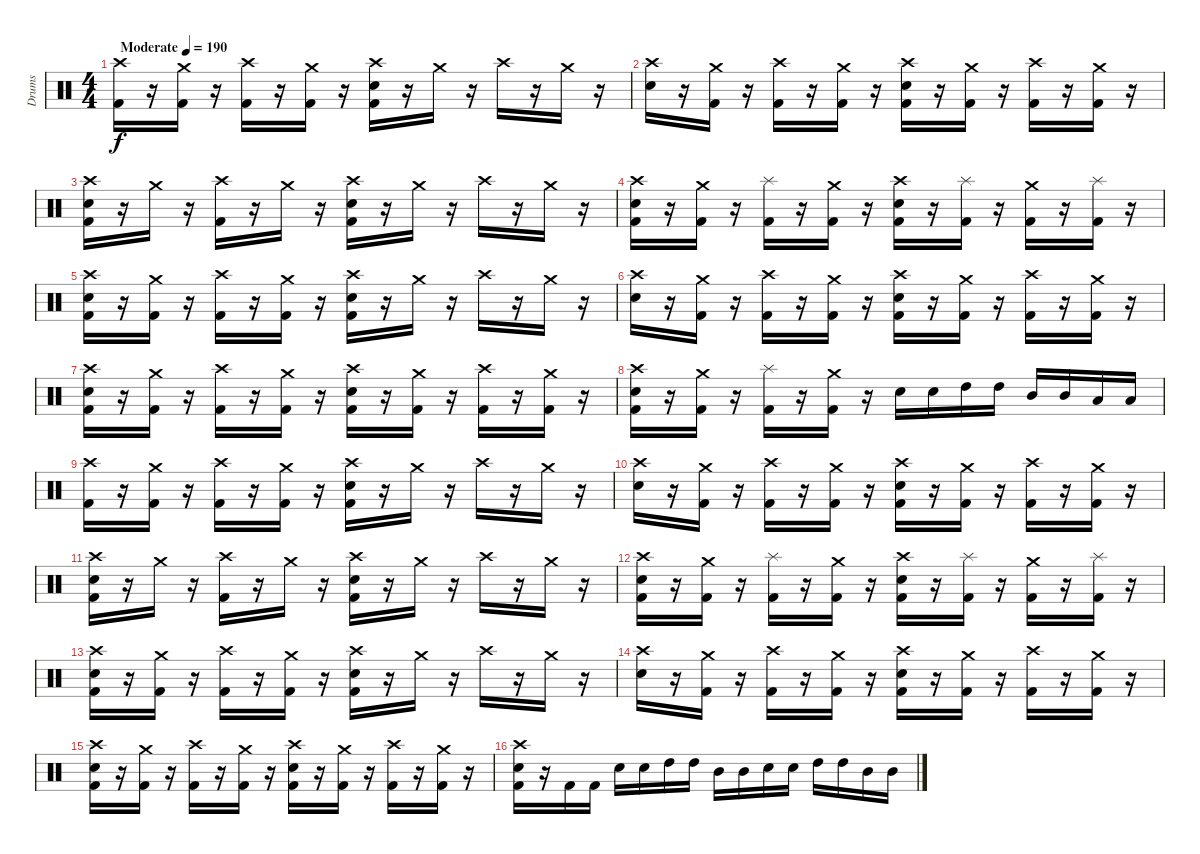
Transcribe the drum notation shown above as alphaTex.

\track ("Drums" "Drums") {instrument percussion}
\staff {score}
\articulation defaults
\ts (4 4)
\tempo (190 "Moderate")
\clef neutral
\ks c
("Crash high (hit)" "Kick (hit) 2").16{dy f} r.16 ("Crash medium (hit)" "Kick (hit) 2").16 r.16 ("Crash high (hit)" "Kick (hit) 2").16 r.16 ("Crash medium (hit)" "Kick (hit) 2").16 r.16 ("Crash high (hit)" "Electric Snare (hit)" "Kick (hit) 2").16 r.16 "Crash medium (hit)".16 r.16 "Crash high (hit)".16 r.16 "Crash medium (hit)".16 r.16 |
("Crash high (hit)" "Electric Snare (hit)").16 r.16 ("Crash medium (hit)" "Kick (hit) 2").16 r.16 ("Crash high (hit)" "Kick (hit) 2").16 r.16 ("Crash medium (hit)" "Kick (hit) 2").16 r.16 ("Crash high (hit)" "Electric Snare (hit)" "Kick (hit) 2").16 r.16 ("Crash medium (hit)" "Kick (hit) 2").16 r.16 ("Crash high (hit)" "Kick (hit) 2").16 r.16 ("Crash medium (hit)" "Kick (hit) 2").16 r.16 |
("Crash high (hit)" "Electric Snare (hit)" "Kick (hit) 2").16 r.16 "Crash medium (hit)".16 r.16 ("Crash high (hit)" "Kick (hit) 2").16 r.16 "Crash medium (hit)".16 r.16 ("Crash high (hit)" "Electric Snare (hit)" "Kick (hit) 2").16 r.16 "Crash medium (hit)".16 r.16 "Crash high (hit)".16 r.16 "Crash medium (hit)".16 r.16 |
("Crash high (hit)" "Electric Snare (hit)" "Kick (hit) 2").16 r.16 ("Crash medium (hit)" "Kick (hit) 2").16 r.16 ("Splash (hit)" "Kick (hit) 2").16 r.16 ("Crash medium (hit)" "Kick (hit) 2").16 r.16 ("Crash high (hit)" "Electric Snare (hit)" "Kick (hit) 2").16 r.16 ("Splash (hit)" "Kick (hit) 2").16 r.16 ("Crash medium (hit)" "Kick (hit) 2").16 r.16 ("Splash (hit)" "Kick (hit) 2").16 r.16 |
("Crash high (hit)" "Electric Snare (hit)" "Kick (hit) 2").16 r.16 ("Crash medium (hit)" "Kick (hit) 2").16 r.16 ("Crash high (hit)" "Kick (hit) 2").16 r.16 ("Crash medium (hit)" "Kick (hit) 2").16 r.16 ("Crash high (hit)" "Electric Snare (hit)" "Kick (hit) 2").16 r.16 "Crash medium (hit)".16 r.16 "Crash high (hit)".16 r.16 "Crash medium (hit)".16 r.16 |
("Crash high (hit)" "Electric Snare (hit)").16 r.16 ("Crash medium (hit)" "Kick (hit) 2").16 r.16 ("Crash high (hit)" "Kick (hit) 2").16 r.16 ("Crash medium (hit)" "Kick (hit) 2").16 r.16 ("Crash high (hit)" "Electric Snare (hit)" "Kick (hit) 2").16 r.16 ("Crash medium (hit)" "Kick (hit) 2").16 r.16 ("Crash high (hit)" "Kick (hit) 2").16 r.16 ("Crash medium (hit)" "Kick (hit) 2").16 r.16 |
("Crash high (hit)" "Electric Snare (hit)" "Kick (hit) 2").16 r.16 ("Crash medium (hit)" "Kick (hit) 2").16 r.16 ("Crash high (hit)" "Kick (hit) 2").16 r.16 ("Crash medium (hit)" "Kick (hit) 2").16 r.16 ("Crash high (hit)" "Electric Snare (hit)" "Kick (hit) 2").16 r.16 ("Crash medium (hit)" "Kick (hit) 2").16 r.16 ("Crash high (hit)" "Kick (hit) 2").16 r.16 ("Crash medium (hit)" "Kick (hit) 2").16 r.16 |
("Crash high (hit)" "Electric Snare (hit)" "Kick (hit) 2").16 r.16 ("Crash medium (hit)" "Kick (hit) 2").16 r.16 ("Splash (hit)" "Kick (hit) 2").16 r.16 ("Crash medium (hit)" "Kick (hit) 2").16 r.16 "Electric Snare (hit)".16 "Electric Snare (hit)".16 "High Tom (hit)".16 "High Tom (hit)".16 "Mid Tom (hit)".16 "Mid Tom (hit)".16 "Low Tom (hit)".16 "Low Tom (hit)".16 |
("Crash high (hit)" "Kick (hit) 2").16 r.16 ("Crash medium (hit)" "Kick (hit) 2").16 r.16 ("Crash high (hit)" "Kick (hit) 2").16 r.16 ("Crash medium (hit)" "Kick (hit) 2").16 r.16 ("Crash high (hit)" "Electric Snare (hit)" "Kick (hit) 2").16 r.16 "Crash medium (hit)".16 r.16 "Crash high (hit)".16 r.16 "Crash medium (hit)".16 r.16 |
("Crash high (hit)" "Electric Snare (hit)").16 r.16 ("Crash medium (hit)" "Kick (hit) 2").16 r.16 ("Crash high (hit)" "Kick (hit) 2").16 r.16 ("Crash medium (hit)" "Kick (hit) 2").16 r.16 ("Crash high (hit)" "Electric Snare (hit)" "Kick (hit) 2").16 r.16 ("Crash medium (hit)" "Kick (hit) 2").16 r.16 ("Crash high (hit)" "Kick (hit) 2").16 r.16 ("Crash medium (hit)" "Kick (hit) 2").16 r.16 |
("Crash high (hit)" "Electric Snare (hit)" "Kick (hit) 2").16 r.16 "Crash medium (hit)".16 r.16 ("Crash high (hit)" "Kick (hit) 2").16 r.16 "Crash medium (hit)".16 r.16 ("Crash high (hit)" "Electric Snare (hit)" "Kick (hit) 2").16 r.16 "Crash medium (hit)".16 r.16 "Crash high (hit)".16 r.16 "Crash medium (hit)".16 r.16 |
("Crash high (hit)" "Electric Snare (hit)" "Kick (hit) 2").16 r.16 ("Crash medium (hit)" "Kick (hit) 2").16 r.16 ("Splash (hit)" "Kick (hit) 2").16 r.16 ("Crash medium (hit)" "Kick (hit) 2").16 r.16 ("Crash high (hit)" "Electric Snare (hit)" "Kick (hit) 2").16 r.16 ("Splash (hit)" "Kick (hit) 2").16 r.16 ("Crash medium (hit)" "Kick (hit) 2").16 r.16 ("Splash (hit)" "Kick (hit) 2").16 r.16 |
("Crash high (hit)" "Electric Snare (hit)" "Kick (hit) 2").16 r.16 ("Crash medium (hit)" "Kick (hit) 2").16 r.16 ("Crash high (hit)" "Kick (hit) 2").16 r.16 ("Crash medium (hit)" "Kick (hit) 2").16 r.16 ("Crash high (hit)" "Electric Snare (hit)" "Kick (hit) 2").16 r.16 "Crash medium (hit)".16 r.16 "Crash high (hit)".16 r.16 "Crash medium (hit)".16 r.16 |
("Crash high (hit)" "Electric Snare (hit)").16 r.16 ("Crash medium (hit)" "Kick (hit) 2").16 r.16 ("Crash high (hit)" "Kick (hit) 2").16 r.16 ("Crash medium (hit)" "Kick (hit) 2").16 r.16 ("Crash high (hit)" "Electric Snare (hit)" "Kick (hit) 2").16 r.16 ("Crash medium (hit)" "Kick (hit) 2").16 r.16 ("Crash high (hit)" "Kick (hit) 2").16 r.16 ("Crash medium (hit)" "Kick (hit) 2").16 r.16 |
("Crash high (hit)" "Electric Snare (hit)" "Kick (hit) 2").16 r.16 ("Crash medium (hit)" "Kick (hit) 2").16 r.16 ("Crash high (hit)" "Kick (hit) 2").16 r.16 ("Crash medium (hit)" "Kick (hit) 2").16 r.16 ("Crash high (hit)" "Electric Snare (hit)" "Kick (hit) 2").16 r.16 ("Crash medium (hit)" "Kick (hit) 2").16 r.16 ("Crash high (hit)" "Kick (hit) 2").16 r.16 ("Crash medium (hit)" "Kick (hit) 2").16 r.16 |
("Crash high (hit)" "Electric Snare (hit)" "Kick (hit) 2").16 r.16 "Kick (hit) 2".16 "Kick (hit) 2".16 "Electric Snare (hit)".16 "Electric Snare (hit)".16 "High Tom (hit)".16 "High Tom (hit)".16 "Mid Tom (hit)".16 "Mid Tom (hit)".16 "Electric Snare (hit)".16 "Electric Snare (hit)".16 "High Tom (hit)".16 "High Tom (hit)".16 "Mid Tom (hit)".16 "Mid Tom (hit)".16
